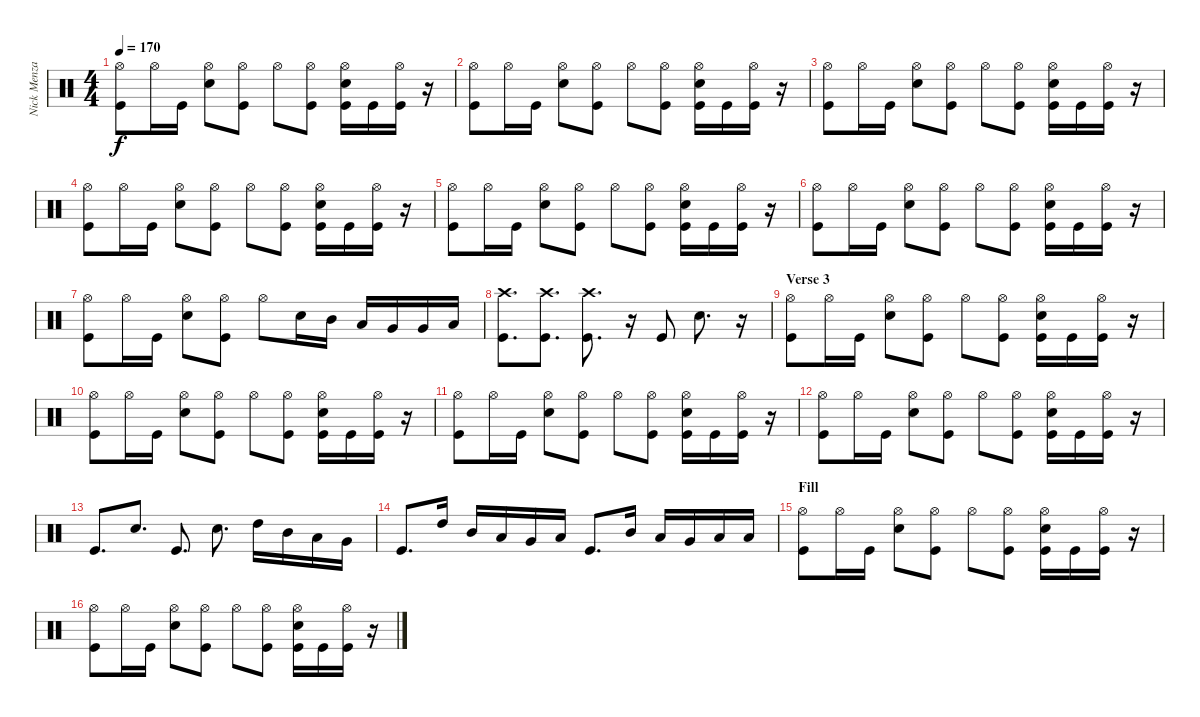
\track ("Nick Menza" "Nick Menza") {instrument percussion}
\staff {score}
\articulation defaults
\ts (4 4)
\tempo 170
\clef neutral
\ks c
("Hi-Hat (open)" "Kick (hit)").8{dy f} "Hi-Hat (open)".16 "Kick (hit)".16 ("Hi-Hat (open)" "Snare (hit) 2").8 ("Hi-Hat (open)" "Kick (hit)").8 "Hi-Hat (open)".8 ("Hi-Hat (open)" "Kick (hit)").8 ("Hi-Hat (open)" "Snare (hit) 2" "Kick (hit)").16 "Kick (hit)".16 ("Hi-Hat (open)" "Kick (hit)").16 r.16 |
("Hi-Hat (open)" "Kick (hit)").8 "Hi-Hat (open)".16 "Kick (hit)".16 ("Hi-Hat (open)" "Snare (hit) 2").8 ("Hi-Hat (open)" "Kick (hit)").8 "Hi-Hat (open)".8 ("Hi-Hat (open)" "Kick (hit)").8 ("Hi-Hat (open)" "Snare (hit) 2" "Kick (hit)").16 "Kick (hit)".16 ("Hi-Hat (open)" "Kick (hit)").16 r.16 |
("Hi-Hat (open)" "Kick (hit)").8 "Hi-Hat (open)".16 "Kick (hit)".16 ("Hi-Hat (open)" "Snare (hit) 2").8 ("Hi-Hat (open)" "Kick (hit)").8 "Hi-Hat (open)".8 ("Hi-Hat (open)" "Kick (hit)").8 ("Hi-Hat (open)" "Snare (hit) 2" "Kick (hit)").16 "Kick (hit)".16 ("Hi-Hat (open)" "Kick (hit)").16 r.16 |
("Hi-Hat (open)" "Kick (hit)").8 "Hi-Hat (open)".16 "Kick (hit)".16 ("Hi-Hat (open)" "Snare (hit) 2").8 ("Hi-Hat (open)" "Kick (hit)").8 "Hi-Hat (open)".8 ("Hi-Hat (open)" "Kick (hit)").8 ("Hi-Hat (open)" "Snare (hit) 2" "Kick (hit)").16 "Kick (hit)".16 ("Hi-Hat (open)" "Kick (hit)").16 r.16 |
("Hi-Hat (open)" "Kick (hit)").8 "Hi-Hat (open)".16 "Kick (hit)".16 ("Hi-Hat (open)" "Snare (hit) 2").8 ("Hi-Hat (open)" "Kick (hit)").8 "Hi-Hat (open)".8 ("Hi-Hat (open)" "Kick (hit)").8 ("Hi-Hat (open)" "Snare (hit) 2" "Kick (hit)").16 "Kick (hit)".16 ("Hi-Hat (open)" "Kick (hit)").16 r.16 |
("Hi-Hat (open)" "Kick (hit)").8 "Hi-Hat (open)".16 "Kick (hit)".16 ("Hi-Hat (open)" "Snare (hit) 2").8 ("Hi-Hat (open)" "Kick (hit)").8 "Hi-Hat (open)".8 ("Hi-Hat (open)" "Kick (hit)").8 ("Hi-Hat (open)" "Snare (hit) 2" "Kick (hit)").16 "Kick (hit)".16 ("Hi-Hat (open)" "Kick (hit)").16 r.16 |
("Hi-Hat (open)" "Kick (hit)").8 "Hi-Hat (open)".16 "Kick (hit)".16 ("Hi-Hat (open)" "Snare (hit) 2").8 ("Hi-Hat (open)" "Kick (hit)").8 "Hi-Hat (open)".8 "Snare (hit) 2".16 "Mid Tom (hit)".16 "Low Tom (hit)".16 "Very Low Tom (hit)".16 "Very Low Tom (hit)".16 "Low Floor Tom (hit)".16 |
("Crash high (hit)" "Kick (hit)").8{d} ("Crash high (hit)" "Kick (hit)").8{d} ("Crash high (hit)" "Kick (hit)").8{d} r.16 "Kick (hit)".8 "Snare (hit) 2".8{d} r.16 |
\section ("" "Verse 3")
("Hi-Hat (open)" "Kick (hit)").8 "Hi-Hat (open)".16 "Kick (hit)".16 ("Hi-Hat (open)" "Snare (hit) 2").8 ("Hi-Hat (open)" "Kick (hit)").8 "Hi-Hat (open)".8 ("Hi-Hat (open)" "Kick (hit)").8 ("Hi-Hat (open)" "Snare (hit) 2" "Kick (hit)").16 "Kick (hit)".16 ("Hi-Hat (open)" "Kick (hit)").16 r.16 |
("Hi-Hat (open)" "Kick (hit)").8 "Hi-Hat (open)".16 "Kick (hit)".16 ("Hi-Hat (open)" "Snare (hit) 2").8 ("Hi-Hat (open)" "Kick (hit)").8 "Hi-Hat (open)".8 ("Hi-Hat (open)" "Kick (hit)").8 ("Hi-Hat (open)" "Snare (hit) 2" "Kick (hit)").16 "Kick (hit)".16 ("Hi-Hat (open)" "Kick (hit)").16 r.16 |
("Hi-Hat (open)" "Kick (hit)").8 "Hi-Hat (open)".16 "Kick (hit)".16 ("Hi-Hat (open)" "Snare (hit) 2").8 ("Hi-Hat (open)" "Kick (hit)").8 "Hi-Hat (open)".8 ("Hi-Hat (open)" "Kick (hit)").8 ("Hi-Hat (open)" "Snare (hit) 2" "Kick (hit)").16 "Kick (hit)".16 ("Hi-Hat (open)" "Kick (hit)").16 r.16 |
("Hi-Hat (open)" "Kick (hit)").8 "Hi-Hat (open)".16 "Kick (hit)".16 ("Hi-Hat (open)" "Snare (hit) 2").8 ("Hi-Hat (open)" "Kick (hit)").8 "Hi-Hat (open)".8 ("Hi-Hat (open)" "Kick (hit)").8 ("Hi-Hat (open)" "Snare (hit) 2" "Kick (hit)").16 "Kick (hit)".16 ("Hi-Hat (open)" "Kick (hit)").16 r.16 |
"Kick (hit)".8{d} "Snare (hit) 2".8{d} "Kick (hit)".8{d} "Snare (hit) 2".8{d} "High Tom (hit)".16 "Mid Tom (hit)".16 "Low Tom (hit)".16 "Very Low Tom (hit)".16 |
"Kick (hit)".8{d} "High Tom (hit)".16 "Mid Tom (hit)".16 "Low Tom (hit)".16 "Very Low Tom (hit)".16 "Low Floor Tom (hit)".16 "Kick (hit)".8{d} "Mid Tom (hit)".16 "Low Tom (hit)".16 "Very Low Tom (hit)".16 "Low Floor Tom (hit)".16 "Low Floor Tom (hit)".16 |
\section ("" "Fill")
("Hi-Hat (open)" "Kick (hit)").8 "Hi-Hat (open)".16 "Kick (hit)".16 ("Hi-Hat (open)" "Snare (hit) 2").8 ("Hi-Hat (open)" "Kick (hit)").8 "Hi-Hat (open)".8 ("Hi-Hat (open)" "Kick (hit)").8 ("Hi-Hat (open)" "Snare (hit) 2" "Kick (hit)").16 "Kick (hit)".16 ("Hi-Hat (open)" "Kick (hit)").16 r.16 |
("Hi-Hat (open)" "Kick (hit)").8 "Hi-Hat (open)".16 "Kick (hit)".16 ("Hi-Hat (open)" "Snare (hit) 2").8 ("Hi-Hat (open)" "Kick (hit)").8 "Hi-Hat (open)".8 ("Hi-Hat (open)" "Kick (hit)").8 ("Hi-Hat (open)" "Snare (hit) 2" "Kick (hit)").16 "Kick (hit)".16 ("Hi-Hat (open)" "Kick (hit)").16 r.16
